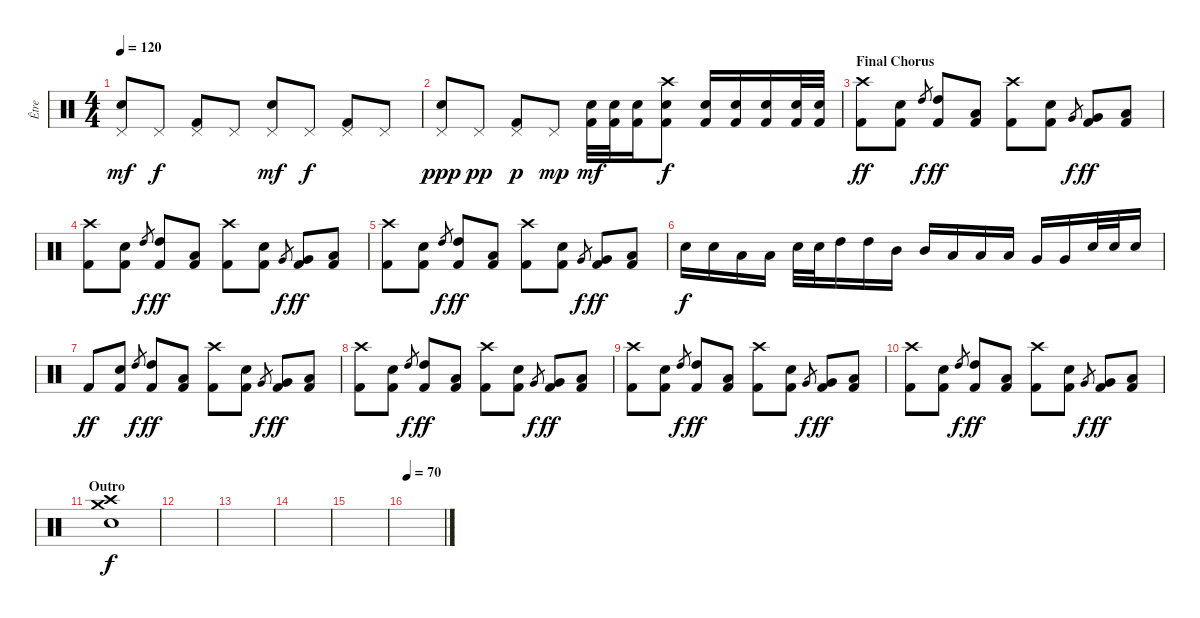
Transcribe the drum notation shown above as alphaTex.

\track ("Être" "Être") {instrument percussion}
\staff {score}
\articulation defaults
\ts (4 4)
\tempo 120
\clef neutral
\ks c
("Pedal Hi-Hat (hit)" "Electric Snare (hit)").8{dy mf} "Pedal Hi-Hat (hit)".8{dy f} ("Kick (hit) 2" "Pedal Hi-Hat (hit)").8 "Pedal Hi-Hat (hit)".8 ("Pedal Hi-Hat (hit)" "Electric Snare (hit)").8{dy mf} "Pedal Hi-Hat (hit)".8{dy f} ("Kick (hit) 2" "Pedal Hi-Hat (hit)").8 "Pedal Hi-Hat (hit)".8 |
("Pedal Hi-Hat (hit)" "Electric Snare (hit)").8{dy ppp} "Pedal Hi-Hat (hit)".8{dy pp} ("Kick (hit) 2" "Pedal Hi-Hat (hit)").8{dy p} "Pedal Hi-Hat (hit)".8{dy mp} ("Kick (hit) 2" "Electric Snare (hit)").32{dy mf} ("Kick (hit) 2" "Electric Snare (hit)").32 ("Kick (hit) 2" "Electric Snare (hit)").16 ("Crash high (hit)" "Kick (hit) 2" "Electric Snare (hit)").8{dy f} ("Kick (hit) 2" "Electric Snare (hit)").16 ("Kick (hit) 2" "Electric Snare (hit)").16 ("Kick (hit) 2" "Electric Snare (hit)").16 ("Kick (hit) 2" "Electric Snare (hit)").32 ("Kick (hit) 2" "Electric Snare (hit)").32 |
\section ("" "Final Chorus")
("Crash high (hit)" "Kick (hit) 2").8{dy ff} ("Kick (hit) 2" "Electric Snare (hit)").8 "High Tom (hit)".8{gr dy f} ("High Tom (hit)" "Kick (hit) 2").8{dy ff} ("Low Tom (hit)" "Kick (hit) 2").8 ("Crash high (hit)" "Kick (hit) 2").8 ("Kick (hit) 2" "Electric Snare (hit)").8 "Very Low Tom (hit)".8{gr dy f} ("Very Low Tom (hit)" "Kick (hit) 2").8{dy ff} ("Low Floor Tom (hit)" "Kick (hit) 2").8 |
("Crash high (hit)" "Kick (hit) 2").8 ("Kick (hit) 2" "Electric Snare (hit)").8 "High Tom (hit)".8{gr dy f} ("High Tom (hit)" "Kick (hit) 2").8{dy ff} ("Low Tom (hit)" "Kick (hit) 2").8 ("Crash high (hit)" "Kick (hit) 2").8 ("Kick (hit) 2" "Electric Snare (hit)").8 "Very Low Tom (hit)".8{gr dy f} ("Very Low Tom (hit)" "Kick (hit) 2").8{dy ff} ("Low Floor Tom (hit)" "Kick (hit) 2").8 |
("Crash high (hit)" "Kick (hit) 2").8 ("Kick (hit) 2" "Electric Snare (hit)").8 "High Tom (hit)".8{gr dy f} ("High Tom (hit)" "Kick (hit) 2").8{dy ff} ("Low Tom (hit)" "Kick (hit) 2").8 ("Crash high (hit)" "Kick (hit) 2").8 ("Kick (hit) 2" "Electric Snare (hit)").8 "Very Low Tom (hit)".8{gr dy f} ("Very Low Tom (hit)" "Kick (hit) 2").8{dy ff} ("Low Floor Tom (hit)" "Kick (hit) 2").8 |
"Electric Snare (hit)".16{dy f} "Electric Snare (hit)".16 "Low Tom (hit)".16 "Low Tom (hit)".16 "Electric Snare (hit)".32 "Electric Snare (hit)".32 "High Tom (hit)".16 "High Tom (hit)".16 "Mid Tom (hit)".16 "Mid Tom (hit)".16 "Low Tom (hit)".16 "Low Tom (hit)".16 "Low Tom (hit)".16 "Very Low Tom (hit)".16 "Very Low Tom (hit)".16 "Electric Snare (hit)".32 "Electric Snare (hit)".32 "Electric Snare (hit)".16 |
"Kick (hit) 2".8{dy ff} ("Kick (hit) 2" "Electric Snare (hit)").8 "High Tom (hit)".8{gr dy f} ("High Tom (hit)" "Kick (hit) 2").8{dy ff} ("Low Tom (hit)" "Kick (hit) 2").8 ("Crash high (hit)" "Kick (hit) 2").8 ("Kick (hit) 2" "Electric Snare (hit)").8 "Very Low Tom (hit)".8{gr dy f} ("Very Low Tom (hit)" "Kick (hit) 2").8{dy ff} ("Low Floor Tom (hit)" "Kick (hit) 2").8 |
("Crash high (hit)" "Kick (hit) 2").8 ("Kick (hit) 2" "Electric Snare (hit)").8 "High Tom (hit)".8{gr dy f} ("High Tom (hit)" "Kick (hit) 2").8{dy ff} ("Low Tom (hit)" "Kick (hit) 2").8 ("Crash high (hit)" "Kick (hit) 2").8 ("Kick (hit) 2" "Electric Snare (hit)").8 "Very Low Tom (hit)".8{gr dy f} ("Very Low Tom (hit)" "Kick (hit) 2").8{dy ff} ("Low Floor Tom (hit)" "Kick (hit) 2").8 |
("Crash high (hit)" "Kick (hit) 2").8 ("Kick (hit) 2" "Electric Snare (hit)").8 "High Tom (hit)".8{gr dy f} ("High Tom (hit)" "Kick (hit) 2").8{dy ff} ("Low Tom (hit)" "Kick (hit) 2").8 ("Crash high (hit)" "Kick (hit) 2").8 ("Kick (hit) 2" "Electric Snare (hit)").8 "Very Low Tom (hit)".8{gr dy f} ("Very Low Tom (hit)" "Kick (hit) 2").8{dy ff} ("Low Floor Tom (hit)" "Kick (hit) 2").8 |
("Crash high (hit)" "Kick (hit) 2").8 ("Kick (hit) 2" "Electric Snare (hit)").8 "High Tom (hit)".8{gr dy f} ("High Tom (hit)" "Kick (hit) 2").8{dy ff} ("Low Tom (hit)" "Kick (hit) 2").8 ("Crash high (hit)" "Kick (hit) 2").8 ("Kick (hit) 2" "Electric Snare (hit)").8 "Very Low Tom (hit)".8{gr dy f} ("Very Low Tom (hit)" "Kick (hit) 2").8{dy ff} ("Low Floor Tom (hit)" "Kick (hit) 2").8 |
\section ("" "Outro")
("Crash medium (hit)" "Crash high (hit)" "Electric Snare (hit)").1{dy f} |
|
|
|
|
\tempo 70
